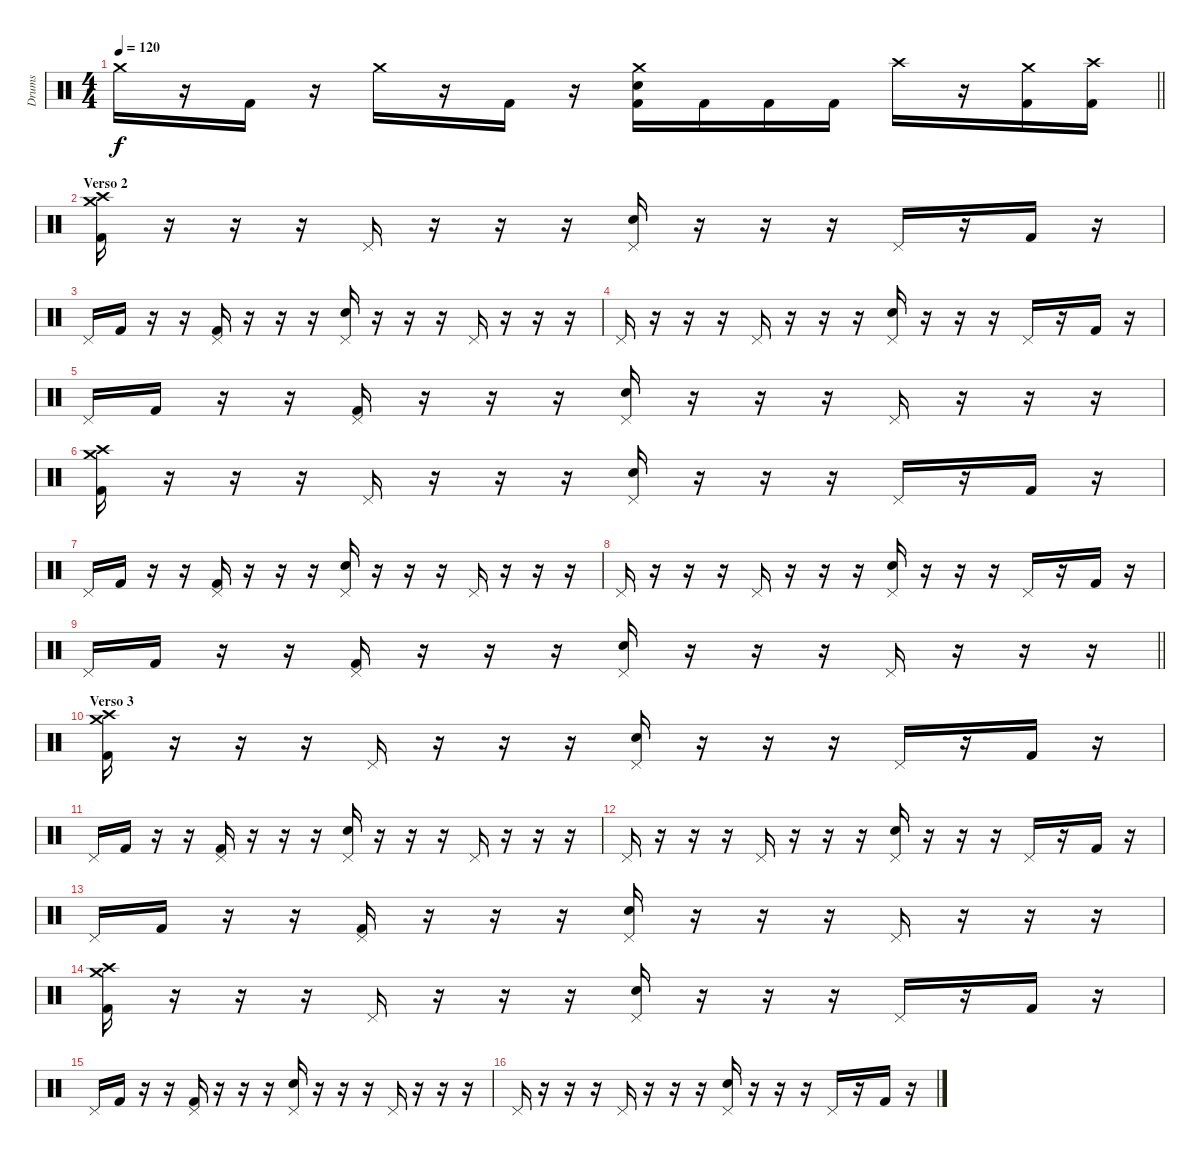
\track ("Drums " "Drums ") {instrument percussion}
\staff {score}
\articulation defaults
\ts (4 4)
\tempo 120
\clef neutral
\barLineRight lightlight
\ks c "Crash medium (hit)".16{dy f}
r.16 "Kick (hit) 2".16 r.16 "Crash medium (hit)".16 r.16 "Kick (hit) 2".16 r.16 ("Crash medium (hit)" "Electric Snare (hit)" "Kick (hit) 2").16 "Kick (hit) 2".16 "Kick (hit) 2".16 "Kick (hit) 2".16 "Crash high (hit)".16 r.16 ("Crash medium (hit)" "Kick (hit) 2").16 ("Crash high (hit)" "Kick (hit) 2").16 |
\section ("" "Verso 2")
("Crash medium (hit)" "Crash high (hit)" "Kick (hit) 2").16 r.16 r.16 r.16 "Pedal Hi-Hat (hit)".16 r.16 r.16 r.16 ("Pedal Hi-Hat (hit)" "Electric Snare (hit)").16 r.16 r.16 r.16 "Pedal Hi-Hat (hit)".16 r.16 "Kick (hit) 2".16 r.16 |
"Pedal Hi-Hat (hit)".16 "Kick (hit) 2".16 r.16 r.16 ("Pedal Hi-Hat (hit)" "Kick (hit) 2").16 r.16 r.16 r.16 ("Pedal Hi-Hat (hit)" "Electric Snare (hit)").16 r.16 r.16 r.16 "Pedal Hi-Hat (hit)".16 r.16 r.16 r.16 |
"Pedal Hi-Hat (hit)".16 r.16 r.16 r.16 "Pedal Hi-Hat (hit)".16 r.16 r.16 r.16 ("Pedal Hi-Hat (hit)" "Electric Snare (hit)").16 r.16 r.16 r.16 "Pedal Hi-Hat (hit)".16 r.16 "Kick (hit) 2".16 r.16 |
"Pedal Hi-Hat (hit)".16 "Kick (hit) 2".16 r.16 r.16 ("Pedal Hi-Hat (hit)" "Kick (hit) 2").16 r.16 r.16 r.16 ("Pedal Hi-Hat (hit)" "Electric Snare (hit)").16 r.16 r.16 r.16 "Pedal Hi-Hat (hit)".16 r.16 r.16 r.16 |
("Crash medium (hit)" "Crash high (hit)" "Kick (hit) 2").16 r.16 r.16 r.16 "Pedal Hi-Hat (hit)".16 r.16 r.16 r.16 ("Pedal Hi-Hat (hit)" "Electric Snare (hit)").16 r.16 r.16 r.16 "Pedal Hi-Hat (hit)".16 r.16 "Kick (hit) 2".16 r.16 |
"Pedal Hi-Hat (hit)".16 "Kick (hit) 2".16 r.16 r.16 ("Pedal Hi-Hat (hit)" "Kick (hit) 2").16 r.16 r.16 r.16 ("Pedal Hi-Hat (hit)" "Electric Snare (hit)").16 r.16 r.16 r.16 "Pedal Hi-Hat (hit)".16 r.16 r.16 r.16 |
"Pedal Hi-Hat (hit)".16 r.16 r.16 r.16 "Pedal Hi-Hat (hit)".16 r.16 r.16 r.16 ("Pedal Hi-Hat (hit)" "Electric Snare (hit)").16 r.16 r.16 r.16 "Pedal Hi-Hat (hit)".16 r.16 "Kick (hit) 2".16 r.16 |
\barLineRight lightlight "Pedal Hi-Hat (hit)".16 "Kick (hit) 2".16
r.16 r.16 ("Pedal Hi-Hat (hit)" "Kick (hit) 2").16 r.16 r.16 r.16 ("Pedal Hi-Hat (hit)" "Electric Snare (hit)").16 r.16 r.16 r.16 "Pedal Hi-Hat (hit)".16 r.16 r.16 r.16 |
\section ("" "Verso 3")
("Crash medium (hit)" "Crash high (hit)" "Kick (hit) 2").16 r.16 r.16 r.16 "Pedal Hi-Hat (hit)".16 r.16 r.16 r.16 ("Pedal Hi-Hat (hit)" "Electric Snare (hit)").16 r.16 r.16 r.16 "Pedal Hi-Hat (hit)".16 r.16 "Kick (hit) 2".16 r.16 |
"Pedal Hi-Hat (hit)".16 "Kick (hit) 2".16 r.16 r.16 ("Pedal Hi-Hat (hit)" "Kick (hit) 2").16 r.16 r.16 r.16 ("Pedal Hi-Hat (hit)" "Electric Snare (hit)").16 r.16 r.16 r.16 "Pedal Hi-Hat (hit)".16 r.16 r.16 r.16 |
"Pedal Hi-Hat (hit)".16 r.16 r.16 r.16 "Pedal Hi-Hat (hit)".16 r.16 r.16 r.16 ("Pedal Hi-Hat (hit)" "Electric Snare (hit)").16 r.16 r.16 r.16 "Pedal Hi-Hat (hit)".16 r.16 "Kick (hit) 2".16 r.16 |
"Pedal Hi-Hat (hit)".16 "Kick (hit) 2".16 r.16 r.16 ("Pedal Hi-Hat (hit)" "Kick (hit) 2").16 r.16 r.16 r.16 ("Pedal Hi-Hat (hit)" "Electric Snare (hit)").16 r.16 r.16 r.16 "Pedal Hi-Hat (hit)".16 r.16 r.16 r.16 |
("Crash medium (hit)" "Crash high (hit)" "Kick (hit) 2").16 r.16 r.16 r.16 "Pedal Hi-Hat (hit)".16 r.16 r.16 r.16 ("Pedal Hi-Hat (hit)" "Electric Snare (hit)").16 r.16 r.16 r.16 "Pedal Hi-Hat (hit)".16 r.16 "Kick (hit) 2".16 r.16 |
"Pedal Hi-Hat (hit)".16 "Kick (hit) 2".16 r.16 r.16 ("Pedal Hi-Hat (hit)" "Kick (hit) 2").16 r.16 r.16 r.16 ("Pedal Hi-Hat (hit)" "Electric Snare (hit)").16 r.16 r.16 r.16 "Pedal Hi-Hat (hit)".16 r.16 r.16 r.16 |
"Pedal Hi-Hat (hit)".16 r.16 r.16 r.16 "Pedal Hi-Hat (hit)".16 r.16 r.16 r.16 ("Pedal Hi-Hat (hit)" "Electric Snare (hit)").16 r.16 r.16 r.16 "Pedal Hi-Hat (hit)".16 r.16 "Kick (hit) 2".16 r.16
